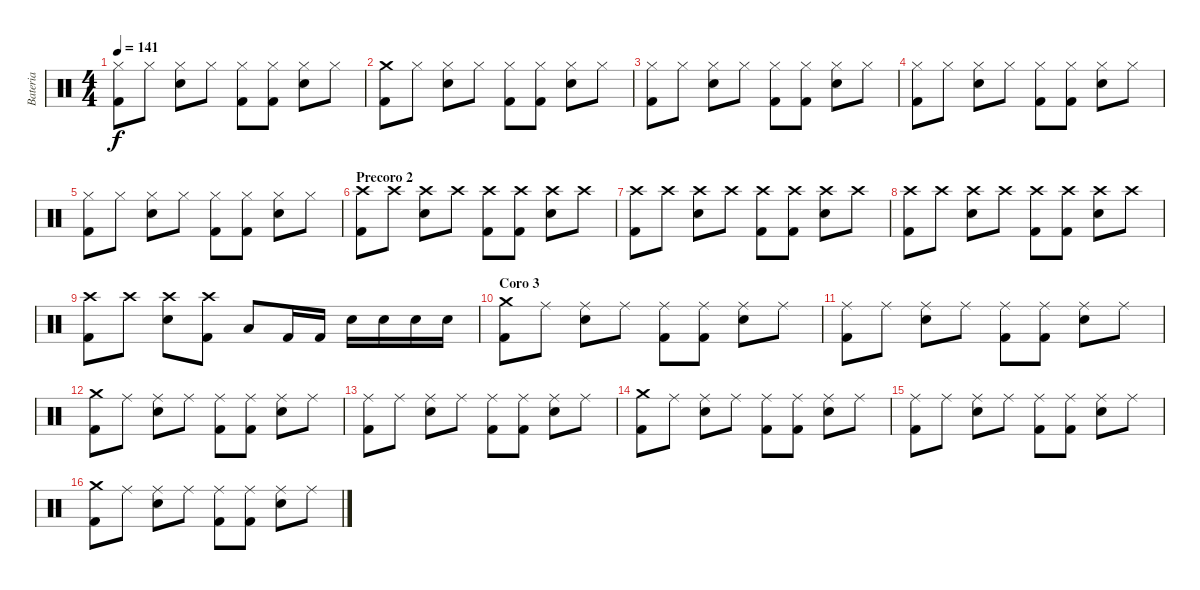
\track ("Bateria" "Bateria") {instrument percussion}
\staff {score}
\articulation defaults
\ts (4 4)
\tempo 141
\clef neutral
\ks c
("Hi-Hat (closed)" "Kick (hit) 2").8{dy f} "Hi-Hat (closed)".8 ("Hi-Hat (closed)" "Electric Snare (hit)").8 "Hi-Hat (closed)".8 ("Hi-Hat (closed)" "Kick (hit) 2").8 ("Hi-Hat (closed)" "Kick (hit) 2").8 ("Hi-Hat (closed)" "Electric Snare (hit)").8 "Hi-Hat (closed)".8 |
("Crash medium (hit)" "Kick (hit) 2").8 "Hi-Hat (closed)".8 ("Hi-Hat (closed)" "Electric Snare (hit)").8 "Hi-Hat (closed)".8 ("Hi-Hat (closed)" "Kick (hit) 2").8 ("Hi-Hat (closed)" "Kick (hit) 2").8 ("Hi-Hat (closed)" "Electric Snare (hit)").8 "Hi-Hat (closed)".8 |
("Hi-Hat (closed)" "Kick (hit) 2").8 "Hi-Hat (closed)".8 ("Hi-Hat (closed)" "Electric Snare (hit)").8 "Hi-Hat (closed)".8 ("Hi-Hat (closed)" "Kick (hit) 2").8 ("Hi-Hat (closed)" "Kick (hit) 2").8 ("Hi-Hat (closed)" "Electric Snare (hit)").8 "Hi-Hat (closed)".8 |
("Hi-Hat (closed)" "Kick (hit) 2").8 "Hi-Hat (closed)".8 ("Hi-Hat (closed)" "Electric Snare (hit)").8 "Hi-Hat (closed)".8 ("Hi-Hat (closed)" "Kick (hit) 2").8 ("Hi-Hat (closed)" "Kick (hit) 2").8 ("Hi-Hat (closed)" "Electric Snare (hit)").8 "Hi-Hat (closed)".8 |
("Hi-Hat (closed)" "Kick (hit) 2").8 "Hi-Hat (closed)".8 ("Hi-Hat (closed)" "Electric Snare (hit)").8 "Hi-Hat (closed)".8 ("Hi-Hat (closed)" "Kick (hit) 2").8 ("Hi-Hat (closed)" "Kick (hit) 2").8 ("Hi-Hat (closed)" "Electric Snare (hit)").8 "Hi-Hat (closed)".8 |
\section ("" "Precoro 2")
("Crash high (hit)" "Kick (hit) 2").8 "Crash high (hit)".8 ("Crash high (hit)" "Electric Snare (hit)").8 "Crash high (hit)".8 ("Crash high (hit)" "Kick (hit) 2").8 ("Crash high (hit)" "Kick (hit) 2").8 ("Crash high (hit)" "Electric Snare (hit)").8 "Crash high (hit)".8 |
("Crash high (hit)" "Kick (hit) 2").8 "Crash high (hit)".8 ("Crash high (hit)" "Electric Snare (hit)").8 "Crash high (hit)".8 ("Crash high (hit)" "Kick (hit) 2").8 ("Crash high (hit)" "Kick (hit) 2").8 ("Crash high (hit)" "Electric Snare (hit)").8 "Crash high (hit)".8 |
("Crash high (hit)" "Kick (hit) 2").8 "Crash high (hit)".8 ("Crash high (hit)" "Electric Snare (hit)").8 "Crash high (hit)".8 ("Crash high (hit)" "Kick (hit) 2").8 ("Crash high (hit)" "Kick (hit) 2").8 ("Crash high (hit)" "Electric Snare (hit)").8 "Crash high (hit)".8 |
("Crash high (hit)" "Kick (hit) 2").8 "Crash high (hit)".8 ("Crash high (hit)" "Electric Snare (hit)").8 ("Crash high (hit)" "Kick (hit) 2").8 "Low Tom (hit)".8 "Kick (hit) 2".16 "Kick (hit) 2".16 "Electric Snare (hit)".16 "Electric Snare (hit)".16 "Electric Snare (hit)".16 "Electric Snare (hit)".16 |
\section ("" "Coro 3")
("Crash medium (hit)" "Kick (hit) 2").8 "Ride (middle)".8 ("Ride (middle)" "Electric Snare (hit)").8 "Ride (middle)".8 ("Ride (middle)" "Kick (hit) 2").8 ("Ride (middle)" "Kick (hit) 2").8 ("Ride (middle)" "Electric Snare (hit)").8 "Ride (middle)".8 |
("Ride (middle)" "Kick (hit) 2").8 "Ride (middle)".8 ("Ride (middle)" "Electric Snare (hit)").8 "Ride (middle)".8 ("Ride (middle)" "Kick (hit) 2").8 ("Ride (middle)" "Kick (hit) 2").8 ("Ride (middle)" "Electric Snare (hit)").8 "Ride (middle)".8 |
("Crash medium (hit)" "Kick (hit) 2").8 "Ride (middle)".8 ("Ride (middle)" "Electric Snare (hit)").8 "Ride (middle)".8 ("Ride (middle)" "Kick (hit) 2").8 ("Ride (middle)" "Kick (hit) 2").8 ("Ride (middle)" "Electric Snare (hit)").8 "Ride (middle)".8 |
("Ride (middle)" "Kick (hit) 2").8 "Ride (middle)".8 ("Ride (middle)" "Electric Snare (hit)").8 "Ride (middle)".8 ("Ride (middle)" "Kick (hit) 2").8 ("Ride (middle)" "Kick (hit) 2").8 ("Ride (middle)" "Electric Snare (hit)").8 "Ride (middle)".8 |
("Crash medium (hit)" "Kick (hit) 2").8 "Ride (middle)".8 ("Ride (middle)" "Electric Snare (hit)").8 "Ride (middle)".8 ("Ride (middle)" "Kick (hit) 2").8 ("Ride (middle)" "Kick (hit) 2").8 ("Ride (middle)" "Electric Snare (hit)").8 "Ride (middle)".8 |
("Ride (middle)" "Kick (hit) 2").8 "Ride (middle)".8 ("Ride (middle)" "Electric Snare (hit)").8 "Ride (middle)".8 ("Ride (middle)" "Kick (hit) 2").8 ("Ride (middle)" "Kick (hit) 2").8 ("Ride (middle)" "Electric Snare (hit)").8 "Ride (middle)".8 |
("Crash medium (hit)" "Kick (hit) 2").8 "Ride (middle)".8 ("Ride (middle)" "Electric Snare (hit)").8 "Ride (middle)".8 ("Ride (middle)" "Kick (hit) 2").8 ("Ride (middle)" "Kick (hit) 2").8 ("Ride (middle)" "Electric Snare (hit)").8 "Ride (middle)".8
